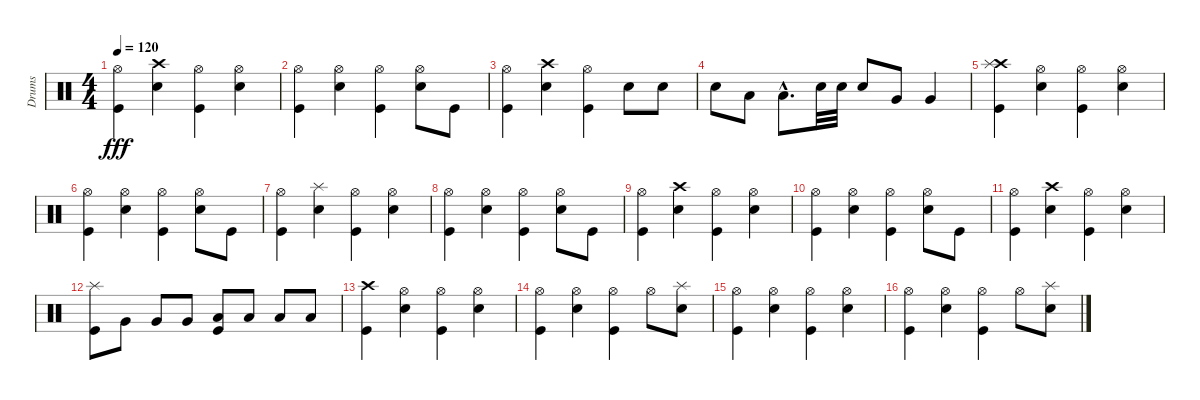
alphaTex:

\track ("Drums" "Drums") {instrument percussion}
\staff {score}
\articulation defaults
\ts (4 4)
\tempo 120
\clef neutral
\ks c
("Hi-Hat (open)" "Kick (hit)").4{dy fff} ("Crash high (hit)" "Snare (hit) 2").4 ("Hi-Hat (open)" "Kick (hit)").4 ("Hi-Hat (open)" "Snare (hit) 2").4 |
("Hi-Hat (open)" "Kick (hit)").4 ("Hi-Hat (open)" "Snare (hit) 2").4 ("Hi-Hat (open)" "Kick (hit)").4 ("Hi-Hat (open)" "Snare (hit) 2").8 "Kick (hit)".8 |
("Hi-Hat (open)" "Kick (hit)").4 ("Crash high (hit)" "Snare (hit) 2").4 ("Hi-Hat (open)" "Kick (hit)").4 "Snare (hit) 2".8 "Snare (hit) 2".8 |
"Snare (hit) 2".8 "Low Tom (hit)".8 "Low Tom (hit)"{hac}.8{d} "Snare (hit) 2".32 "Snare (hit) 2".32 "Snare (hit) 2".8 "Very Low Tom (hit)".8 "Very Low Tom (hit)".4 |
("Crash high (hit)" "Splash (hit)" "Kick (hit)").4 ("Hi-Hat (open)" "Snare (hit) 2").4 ("Hi-Hat (open)" "Kick (hit)").4 ("Hi-Hat (open)" "Snare (hit) 2").4 |
("Hi-Hat (open)" "Kick (hit)").4 ("Hi-Hat (open)" "Snare (hit) 2").4 ("Hi-Hat (open)" "Kick (hit)").4 ("Hi-Hat (open)" "Snare (hit) 2").8 "Kick (hit)".8 |
("Hi-Hat (open)" "Kick (hit)").4 ("Splash (hit)" "Snare (hit) 2").4 ("Hi-Hat (open)" "Kick (hit)").4 ("Hi-Hat (open)" "Snare (hit) 2").4 |
("Hi-Hat (open)" "Kick (hit)").4 ("Hi-Hat (open)" "Snare (hit) 2").4 ("Hi-Hat (open)" "Kick (hit)").4 ("Hi-Hat (open)" "Snare (hit) 2").8 "Kick (hit)".8 |
("Hi-Hat (open)" "Kick (hit)").4 ("Crash high (hit)" "Snare (hit) 2").4 ("Hi-Hat (open)" "Kick (hit)").4 ("Hi-Hat (open)" "Snare (hit) 2").4 |
("Hi-Hat (open)" "Kick (hit)").4 ("Hi-Hat (open)" "Snare (hit) 2").4 ("Hi-Hat (open)" "Kick (hit)").4 ("Hi-Hat (open)" "Snare (hit) 2").8 "Kick (hit)".8 |
("Hi-Hat (open)" "Kick (hit)").4 ("Crash high (hit)" "Snare (hit) 2").4 ("Hi-Hat (open)" "Kick (hit)").4 ("Hi-Hat (open)" "Snare (hit) 2").4 |
("Splash (hit)" "Kick (hit)").8 "Very Low Tom (hit)".8 "Very Low Tom (hit)".8 "Very Low Tom (hit)".8 ("Low Tom (hit)" "Kick (hit)").8 "Low Tom (hit)".8 "Low Tom (hit)".8 "Low Tom (hit)".8 |
("Crash high (hit)" "Kick (hit)").4 ("Hi-Hat (open)" "Snare (hit) 2").4 ("Hi-Hat (open)" "Kick (hit)").4 ("Hi-Hat (open)" "Snare (hit) 2").4 |
("Hi-Hat (open)" "Kick (hit)").4 ("Hi-Hat (open)" "Snare (hit) 2").4 ("Hi-Hat (open)" "Kick (hit)").4 "Hi-Hat (open)".8 ("Splash (hit)" "Snare (hit) 2").8 |
("Hi-Hat (open)" "Kick (hit)").4 ("Hi-Hat (open)" "Snare (hit) 2").4 ("Hi-Hat (open)" "Kick (hit)").4 ("Hi-Hat (open)" "Snare (hit) 2").4 |
("Hi-Hat (open)" "Kick (hit)").4 ("Hi-Hat (open)" "Snare (hit) 2").4 ("Hi-Hat (open)" "Kick (hit)").4 "Hi-Hat (open)".8 ("Splash (hit)" "Snare (hit) 2").8
